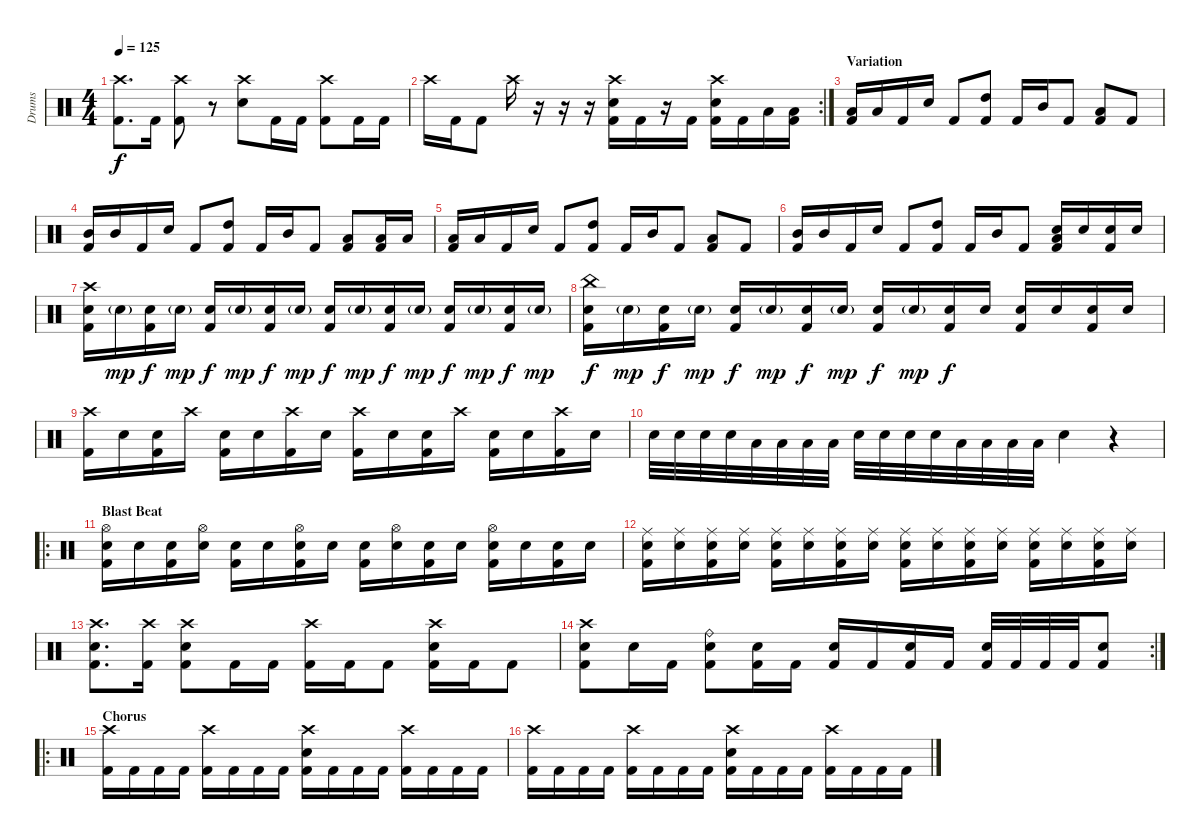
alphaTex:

\track ("Drums" "Drums") {instrument percussion}
\staff {score}
\articulation defaults
\ts (4 4)
\tempo 125
\clef neutral
\ks c
("Crash high (hit)" "Kick (hit) 2").8{d dy f} "Kick (hit) 2".16 ("Crash high (hit)" "Kick (hit) 2").8 r.8 ("Crash high (hit)" "Electric Snare (hit)").8 "Kick (hit) 2".16 "Kick (hit) 2".16 ("Crash high (hit)" "Kick (hit) 2").8 "Kick (hit) 2".16 "Kick (hit) 2".16 |
\rc 2 "Crash high (hit)".16 "Kick (hit) 2".16 "Kick (hit) 2".8 "Crash high (hit)".16
r.16 r.16 r.16 ("Crash high (hit)" "Electric Snare (hit)" "Kick (hit) 2").16 "Kick (hit) 2".16 r.16 "Kick (hit) 2".16 ("Crash high (hit)" "Electric Snare (hit)" "Kick (hit) 2").16 "Kick (hit) 2".16 "Low Tom (hit)".16 ("Low Tom (hit)" "Kick (hit) 2").16 |
\section ("" "Variation")
("Low Floor Tom (hit)" "Kick (hit) 2").16 "Low Floor Tom (hit)".16 "Kick (hit) 2".16 "Electric Snare (hit)".16 "Kick (hit) 2".8 ("High Tom (hit)" "Kick (hit) 2").8 "Kick (hit) 2".16 "Mid Tom (hit)".16 "Kick (hit) 2".8 ("Low Tom (hit)" "Kick (hit) 2").8 "Kick (hit) 2".8 |
("Mid Tom (hit)" "Kick (hit) 2").16 "Mid Tom (hit)".16 "Kick (hit) 2".16 "Electric Snare (hit)".16 "Kick (hit) 2".8 ("High Tom (hit)" "Kick (hit) 2").8 "Kick (hit) 2".16 "Mid Tom (hit)".16 "Kick (hit) 2".8 ("Low Tom (hit)" "Kick (hit) 2").8 ("Low Floor Tom (hit)" "Kick (hit) 2").16 "Low Floor Tom (hit)".16 |
("Low Floor Tom (hit)" "Kick (hit) 2").16 "Low Floor Tom (hit)".16 "Kick (hit) 2".16 "Electric Snare (hit)".16 "Kick (hit) 2".8 ("High Tom (hit)" "Kick (hit) 2").8 "Kick (hit) 2".16 "Mid Tom (hit)".16 "Kick (hit) 2".8 ("Low Tom (hit)" "Kick (hit) 2").8 "Kick (hit) 2".8 |
("Mid Tom (hit)" "Kick (hit) 2").16 "Mid Tom (hit)".16 "Kick (hit) 2".16 "Electric Snare (hit)".16 "Kick (hit) 2".8 ("High Tom (hit)" "Kick (hit) 2").8 "Kick (hit) 2".16 "Mid Tom (hit)".16 "Kick (hit) 2".8 ("Low Tom (hit)" "Electric Snare (hit)" "Kick (hit) 2").16 "Electric Snare (hit)".16 ("Electric Snare (hit)" "Kick (hit) 2").16 "Electric Snare (hit)".16 |
("Crash high (hit)" "Electric Snare (hit)" "Kick (hit) 2").16 "Electric Snare (hit)"{g}.16{dy mp} ("Electric Snare (hit)" "Kick (hit) 2").16{dy f} "Electric Snare (hit)"{g}.16{dy mp} ("Electric Snare (hit)" "Kick (hit) 2").16{dy f} "Electric Snare (hit)"{g}.16{dy mp} ("Electric Snare (hit)" "Kick (hit) 2").16{dy f} "Electric Snare (hit)"{g}.16{dy mp} ("Electric Snare (hit)" "Kick (hit) 2").16{dy f} "Electric Snare (hit)"{g}.16{dy mp} ("Electric Snare (hit)" "Kick (hit) 2").16{dy f} "Electric Snare (hit)"{g}.16{dy mp} ("Electric Snare (hit)" "Kick (hit) 2").16{dy f} "Electric Snare (hit)"{g}.16{dy mp} ("Electric Snare (hit)" "Kick (hit) 2").16{dy f} "Electric Snare (hit)"{g}.16{dy mp} |
("China (hit)" "Electric Snare (hit)" "Kick (hit) 2").16{dy f} "Electric Snare (hit)"{g}.16{dy mp} ("Electric Snare (hit)" "Kick (hit) 2").16{dy f} "Electric Snare (hit)"{g}.16{dy mp} ("Electric Snare (hit)" "Kick (hit) 2").16{dy f} "Electric Snare (hit)"{g}.16{dy mp} ("Electric Snare (hit)" "Kick (hit) 2").16{dy f} "Electric Snare (hit)"{g}.16{dy mp} ("Electric Snare (hit)" "Kick (hit) 2").16{dy f} "Electric Snare (hit)"{g}.16{dy mp} ("Electric Snare (hit)" "Kick (hit) 2").16{dy f} "Electric Snare (hit)".16 ("Electric Snare (hit)" "Kick (hit) 2").16 "Electric Snare (hit)".16 ("Electric Snare (hit)" "Kick (hit) 2").16 "Electric Snare (hit)".16 |
("Crash high (hit)" "Kick (hit) 2").16 "Electric Snare (hit)".16 ("Electric Snare (hit)" "Kick (hit) 2").16 "Crash high (hit)".16 ("Electric Snare (hit)" "Kick (hit) 2").16 "Electric Snare (hit)".16 ("Crash high (hit)" "Kick (hit) 2").16 "Electric Snare (hit)".16 ("Crash high (hit)" "Kick (hit) 2").16 "Electric Snare (hit)".16 ("Electric Snare (hit)" "Kick (hit) 2").16 "Crash high (hit)".16 ("Electric Snare (hit)" "Kick (hit) 2").16 "Electric Snare (hit)".16 ("Crash high (hit)" "Kick (hit) 2").16 "Electric Snare (hit)".16 |
"Electric Snare (hit)".32 "Electric Snare (hit)".32 "Electric Snare (hit)".32 "Electric Snare (hit)".32 "Low Tom (hit)".32 "Low Tom (hit)".32 "Low Tom (hit)".32 "Low Tom (hit)".32 "Electric Snare (hit)".32 "Electric Snare (hit)".32 "Electric Snare (hit)".32 "Electric Snare (hit)".32 "Low Tom (hit)".32 "Low Tom (hit)".32 "Low Tom (hit)".32 "Low Tom (hit)".32 "Electric Snare (hit)".4 r.4 |
\ro
\section ("" "Blast Beat")
("Hi-Hat (open)" "Electric Snare (hit)" "Kick (hit) 2").16 "Electric Snare (hit)".16 ("Electric Snare (hit)" "Kick (hit) 2").16 ("Hi-Hat (open)" "Electric Snare (hit)").16 ("Electric Snare (hit)" "Kick (hit) 2").16 "Electric Snare (hit)".16 ("Hi-Hat (open)" "Electric Snare (hit)" "Kick (hit) 2").16 "Electric Snare (hit)".16 ("Electric Snare (hit)" "Kick (hit) 2").16 ("Hi-Hat (open)" "Electric Snare (hit)").16 ("Electric Snare (hit)" "Kick (hit) 2").16 "Electric Snare (hit)".16 ("Hi-Hat (open)" "Electric Snare (hit)" "Kick (hit) 2").16 "Electric Snare (hit)".16 ("Electric Snare (hit)" "Kick (hit) 2").16 "Electric Snare (hit)".16 |
("Ride (middle)" "Electric Snare (hit)" "Kick (hit) 2").16 ("Ride (middle)" "Electric Snare (hit)").16 ("Ride (middle)" "Electric Snare (hit)" "Kick (hit) 2").16 ("Ride (middle)" "Electric Snare (hit)").16 ("Ride (middle)" "Electric Snare (hit)" "Kick (hit) 2").16 ("Ride (middle)" "Electric Snare (hit)").16 ("Ride (middle)" "Electric Snare (hit)" "Kick (hit) 2").16 ("Ride (middle)" "Electric Snare (hit)").16 ("Ride (middle)" "Electric Snare (hit)" "Kick (hit) 2").16 ("Ride (middle)" "Electric Snare (hit)").16 ("Ride (middle)" "Electric Snare (hit)" "Kick (hit) 2").16 ("Ride (middle)" "Electric Snare (hit)").16 ("Ride (middle)" "Electric Snare (hit)" "Kick (hit) 2").16 ("Ride (middle)" "Electric Snare (hit)").16 ("Ride (middle)" "Electric Snare (hit)" "Kick (hit) 2").16 ("Ride (middle)" "Electric Snare (hit)").16 |
("Crash high (hit)" "Electric Snare (hit)" "Kick (hit) 2").8{d} ("Crash high (hit)" "Kick (hit) 2").16 ("Crash high (hit)" "Electric Snare (hit)" "Kick (hit) 2").8 "Kick (hit) 2".16 "Kick (hit) 2".16 ("Crash high (hit)" "Kick (hit) 2").16 "Kick (hit) 2".16 "Kick (hit) 2".8 ("Crash high (hit)" "Electric Snare (hit)" "Kick (hit) 2").16 "Kick (hit) 2".16 "Kick (hit) 2".8 |
\rc 2
("Crash high (hit)" "Electric Snare (hit)" "Kick (hit) 2").8 "Electric Snare (hit)".16 "Kick (hit) 2".16 ("Ride (bell)" "Electric Snare (hit)" "Kick (hit) 2").8 ("Electric Snare (hit)" "Kick (hit) 2").16 "Kick (hit) 2".16 ("Electric Snare (hit)" "Kick (hit) 2").16 "Kick (hit) 2".16 ("Electric Snare (hit)" "Kick (hit) 2").16 "Kick (hit) 2".16 ("Electric Snare (hit)" "Kick (hit) 2").32 "Kick (hit) 2".32 "Kick (hit) 2".32 "Kick (hit) 2".32 ("Electric Snare (hit)" "Kick (hit) 2").8 |
\ro
\section ("" "Chorus")
("Crash high (hit)" "Kick (hit) 2").16 "Kick (hit) 2".16 "Kick (hit) 2".16 "Kick (hit) 2".16 ("Crash high (hit)" "Kick (hit) 2").16 "Kick (hit) 2".16 "Kick (hit) 2".16 "Kick (hit) 2".16 ("Crash high (hit)" "Electric Snare (hit)" "Kick (hit) 2").16 "Kick (hit) 2".16 "Kick (hit) 2".16 "Kick (hit) 2".16 ("Crash high (hit)" "Kick (hit) 2").16 "Kick (hit) 2".16 "Kick (hit) 2".16 "Kick (hit) 2".16 |
("Crash high (hit)" "Kick (hit) 2").16 "Kick (hit) 2".16 "Kick (hit) 2".16 "Kick (hit) 2".16 ("Crash high (hit)" "Kick (hit) 2").16 "Kick (hit) 2".16 "Kick (hit) 2".16 "Kick (hit) 2".16 ("Crash high (hit)" "Electric Snare (hit)" "Kick (hit) 2").16 "Kick (hit) 2".16 "Kick (hit) 2".16 "Kick (hit) 2".16 ("Crash high (hit)" "Kick (hit) 2").16 "Kick (hit) 2".16 "Kick (hit) 2".16 "Kick (hit) 2".16
